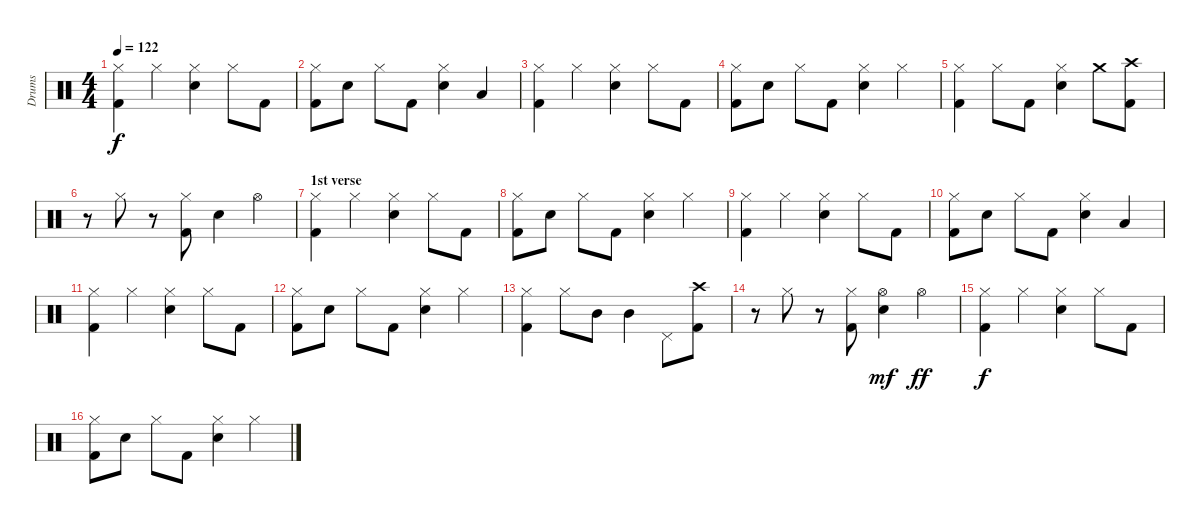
\track ("Drums" "Drums") {instrument percussion}
\staff {score}
\articulation defaults
\ts (4 4)
\tempo 122
\clef neutral
\ks c
("Hi-Hat (closed)" "Kick (hit) 2").4{dy f} "Hi-Hat (closed)".4 ("Hi-Hat (closed)" "Snare (hit) 2").4 "Hi-Hat (closed)".8 "Kick (hit) 2".8 |
("Hi-Hat (closed)" "Kick (hit) 2").8 "Snare (hit) 2".8 "Hi-Hat (closed)".8 "Kick (hit) 2".8 ("Hi-Hat (closed)" "Snare (hit) 2").4 "Low Tom (hit)".4 |
("Hi-Hat (closed)" "Kick (hit) 2").4 "Hi-Hat (closed)".4 ("Hi-Hat (closed)" "Snare (hit) 2").4 "Hi-Hat (closed)".8 "Kick (hit) 2".8 |
("Hi-Hat (closed)" "Kick (hit) 2").8 "Snare (hit) 2".8 "Hi-Hat (closed)".8 "Kick (hit) 2".8 ("Hi-Hat (closed)" "Snare (hit) 2").4 "Hi-Hat (closed)".4 |
("Hi-Hat (closed)" "Kick (hit) 2").4 "Hi-Hat (closed)".8 "Kick (hit) 2".8 ("Hi-Hat (closed)" "Snare (hit) 2").4 "Crash medium (hit)".8 ("Crash high (hit)" "Kick (hit) 2").8 |
r.8 "Hi-Hat (closed)".8 r.8 ("Hi-Hat (closed)" "Kick (hit) 2").8 "Snare (hit) 2".4 "Hi-Hat (open)".4 |
\section ("" "1st verse ")
("Hi-Hat (closed)" "Kick (hit) 2").4 "Hi-Hat (closed)".4 ("Hi-Hat (closed)" "Snare (hit) 2").4 "Hi-Hat (closed)".8 "Kick (hit) 2".8 |
("Hi-Hat (closed)" "Kick (hit) 2").8 "Snare (hit) 2".8 "Hi-Hat (closed)".8 "Kick (hit) 2".8 ("Hi-Hat (closed)" "Snare (hit) 2").4 "Hi-Hat (closed)".4 |
("Hi-Hat (closed)" "Kick (hit) 2").4 "Hi-Hat (closed)".4 ("Hi-Hat (closed)" "Snare (hit) 2").4 "Hi-Hat (closed)".8 "Kick (hit) 2".8 |
("Hi-Hat (closed)" "Kick (hit) 2").8 "Snare (hit) 2".8 "Hi-Hat (closed)".8 "Kick (hit) 2".8 ("Hi-Hat (closed)" "Snare (hit) 2").4 "Low Tom (hit)".4 |
("Hi-Hat (closed)" "Kick (hit) 2").4 "Hi-Hat (closed)".4 ("Hi-Hat (closed)" "Snare (hit) 2").4 "Hi-Hat (closed)".8 "Kick (hit) 2".8 |
("Hi-Hat (closed)" "Kick (hit) 2").8 "Snare (hit) 2".8 "Hi-Hat (closed)".8 "Kick (hit) 2".8 ("Hi-Hat (closed)" "Snare (hit) 2").4 "Hi-Hat (closed)".4 |
("Hi-Hat (closed)" "Kick (hit) 2").4 "Hi-Hat (closed)".8 "Mid Tom (hit)".8 "Mid Tom (hit)".4 "Pedal Hi-Hat (hit)".8 ("Crash high (hit)" "Kick (hit) 2").8 |
r.8 "Hi-Hat (closed)".8 r.8 ("Hi-Hat (closed)" "Kick (hit) 2").8 ("Hi-Hat (open)" "Snare (hit) 2").4{dy mf} "Hi-Hat (open)".4{dy ff} |
("Hi-Hat (closed)" "Kick (hit) 2").4{dy f} "Hi-Hat (closed)".4 ("Hi-Hat (closed)" "Snare (hit) 2").4 "Hi-Hat (closed)".8 "Kick (hit) 2".8 |
("Hi-Hat (closed)" "Kick (hit) 2").8 "Snare (hit) 2".8 "Hi-Hat (closed)".8 "Kick (hit) 2".8 ("Hi-Hat (closed)" "Snare (hit) 2").4 "Hi-Hat (closed)".4
